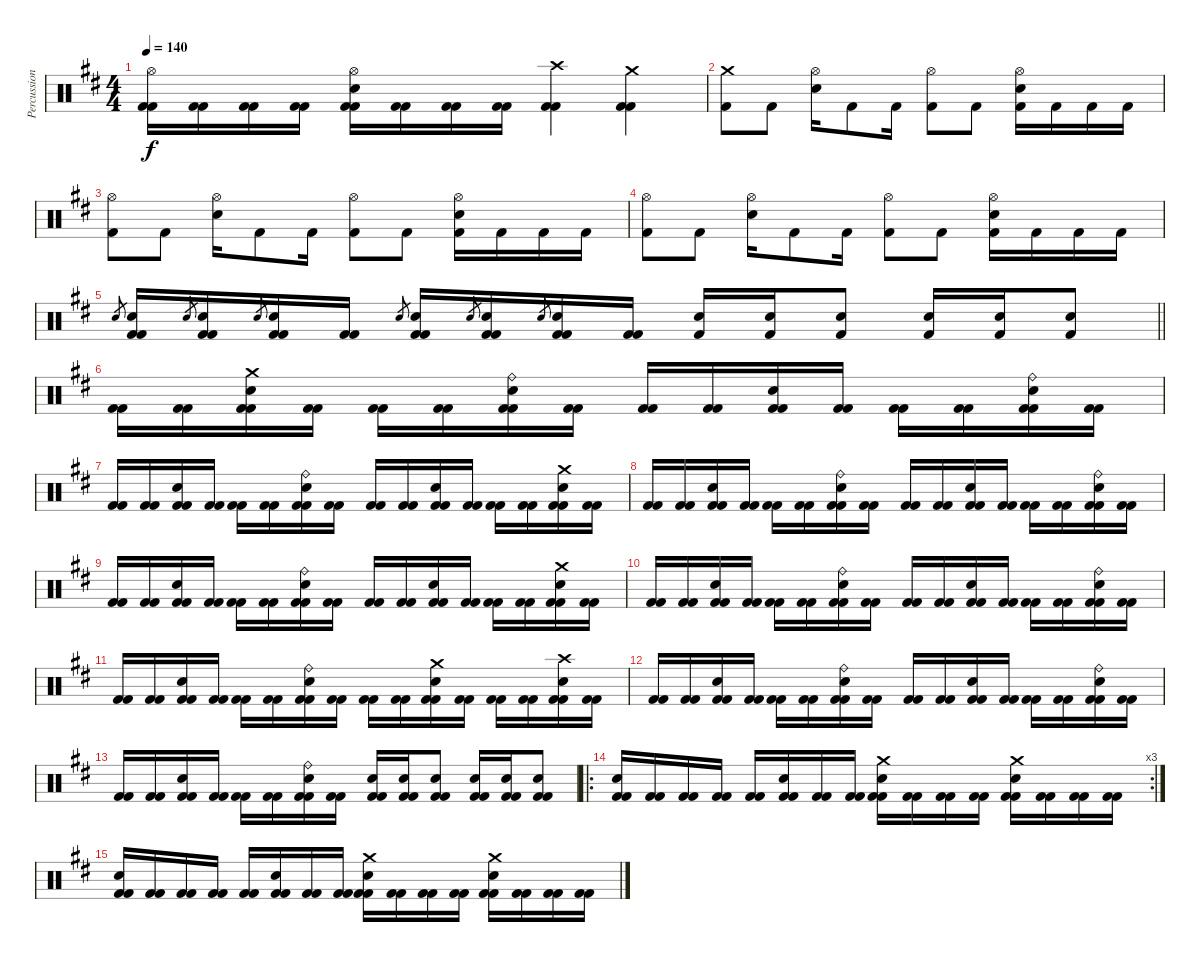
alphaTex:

\track ("Percussion" "Percussion") {instrument percussion}
\staff {score}
\articulation defaults
\ts (4 4)
\tempo 140
\clef neutral
\ks d
("Hi-Hat (open)" "Kick (hit) 2" "Kick (hit) 2").16{dy f} ("Kick (hit) 2" "Kick (hit) 2").16 ("Kick (hit) 2" "Kick (hit) 2").16 ("Kick (hit) 2" "Kick (hit) 2").16 ("Hi-Hat (open)" "Electric Snare (hit)" "Kick (hit) 2" "Kick (hit) 2").16 ("Kick (hit) 2" "Kick (hit) 2").16 ("Kick (hit) 2" "Kick (hit) 2").16 ("Kick (hit) 2" "Kick (hit) 2").16 ("Crash high (hit)" "Kick (hit) 2" "Kick (hit) 2").4 ("Crash medium (hit)" "Kick (hit) 2" "Kick (hit) 2").4 |
("Crash medium (hit)" "Kick (hit) 2").8 "Kick (hit) 2".8 ("Hi-Hat (open)" "Electric Snare (hit)").16 "Kick (hit) 2".8 "Kick (hit) 2".16 ("Hi-Hat (open)" "Kick (hit) 2").8 "Kick (hit) 2".8 ("Hi-Hat (open)" "Electric Snare (hit)" "Kick (hit) 2").16 "Kick (hit) 2".16 "Kick (hit) 2".16 "Kick (hit) 2".16 |
("Hi-Hat (open)" "Kick (hit) 2").8 "Kick (hit) 2".8 ("Hi-Hat (open)" "Electric Snare (hit)").16 "Kick (hit) 2".8 "Kick (hit) 2".16 ("Hi-Hat (open)" "Kick (hit) 2").8 "Kick (hit) 2".8 ("Hi-Hat (open)" "Electric Snare (hit)" "Kick (hit) 2").16 "Kick (hit) 2".16 "Kick (hit) 2".16 "Kick (hit) 2".16 |
("Hi-Hat (open)" "Kick (hit) 2").8 "Kick (hit) 2".8 ("Hi-Hat (open)" "Electric Snare (hit)").16 "Kick (hit) 2".8 "Kick (hit) 2".16 ("Hi-Hat (open)" "Kick (hit) 2").8 "Kick (hit) 2".8 ("Hi-Hat (open)" "Electric Snare (hit)" "Kick (hit) 2").16 "Kick (hit) 2".16 "Kick (hit) 2".16 "Kick (hit) 2".16 |
\barLineRight lightlight "Electric Snare (hit)".8{gr}
("Electric Snare (hit)" "Kick (hit) 2" "Kick (hit) 2").16 "Electric Snare (hit)".8{gr} ("Electric Snare (hit)" "Kick (hit) 2" "Kick (hit) 2").16 "Snare (hit)".8{gr} ("Electric Snare (hit)" "Kick (hit) 2" "Kick (hit) 2").16 ("Kick (hit) 2" "Kick (hit) 2").16 "Electric Snare (hit)".8{gr} ("Electric Snare (hit)" "Kick (hit) 2" "Kick (hit) 2").16 "Electric Snare (hit)".8{gr} ("Electric Snare (hit)" "Kick (hit) 2" "Kick (hit) 2").16 "Electric Snare (hit)".8{gr} ("Electric Snare (hit)" "Kick (hit) 2" "Kick (hit) 2").16 ("Kick (hit) 2" "Kick (hit) 2").16 ("Electric Snare (hit)" "Kick (hit) 2").16 ("Electric Snare (hit)" "Kick (hit) 2").16 ("Electric Snare (hit)" "Kick (hit) 2").8 ("Electric Snare (hit)" "Kick (hit) 2").16 ("Electric Snare (hit)" "Kick (hit) 2").16 ("Electric Snare (hit)" "Kick (hit) 2").8 |
("Kick (hit) 2" "Kick (hit) 2").16 ("Kick (hit) 2" "Kick (hit) 2").16 ("Crash medium (hit)" "Electric Snare (hit)" "Kick (hit) 2" "Kick (hit) 2").16 ("Kick (hit) 2" "Kick (hit) 2").16 ("Kick (hit) 2" "Kick (hit) 2").16 ("Kick (hit) 2" "Kick (hit) 2").16 ("Ride (bell)" "Electric Snare (hit)" "Kick (hit) 2" "Kick (hit) 2").16 ("Kick (hit) 2" "Kick (hit) 2").16 ("Kick (hit) 2" "Kick (hit) 2").16 ("Kick (hit) 2" "Kick (hit) 2").16 ("Electric Snare (hit)" "Kick (hit) 2" "Kick (hit) 2").16 ("Kick (hit) 2" "Kick (hit) 2").16 ("Kick (hit) 2" "Kick (hit) 2").16 ("Kick (hit) 2" "Kick (hit) 2").16 ("Ride (bell)" "Electric Snare (hit)" "Kick (hit) 2" "Kick (hit) 2").16 ("Kick (hit) 2" "Kick (hit) 2").16 |
("Kick (hit) 2" "Kick (hit) 2").16 ("Kick (hit) 2" "Kick (hit) 2").16 ("Electric Snare (hit)" "Kick (hit) 2" "Kick (hit) 2").16 ("Kick (hit) 2" "Kick (hit) 2").16 ("Kick (hit) 2" "Kick (hit) 2").16 ("Kick (hit) 2" "Kick (hit) 2").16 ("Ride (bell)" "Electric Snare (hit)" "Kick (hit) 2" "Kick (hit) 2").16 ("Kick (hit) 2" "Kick (hit) 2").16 ("Kick (hit) 2" "Kick (hit) 2").16 ("Kick (hit) 2" "Kick (hit) 2").16 ("Electric Snare (hit)" "Kick (hit) 2" "Kick (hit) 2").16 ("Kick (hit) 2" "Kick (hit) 2").16 ("Kick (hit) 2" "Kick (hit) 2").16 ("Kick (hit) 2" "Kick (hit) 2").16 ("Crash medium (hit)" "Electric Snare (hit)" "Kick (hit) 2" "Kick (hit) 2").16 ("Kick (hit) 2" "Kick (hit) 2").16 |
("Kick (hit) 2" "Kick (hit) 2").16 ("Kick (hit) 2" "Kick (hit) 2").16 ("Electric Snare (hit)" "Kick (hit) 2" "Kick (hit) 2").16 ("Kick (hit) 2" "Kick (hit) 2").16 ("Kick (hit) 2" "Kick (hit) 2").16 ("Kick (hit) 2" "Kick (hit) 2").16 ("Ride (bell)" "Electric Snare (hit)" "Kick (hit) 2" "Kick (hit) 2").16 ("Kick (hit) 2" "Kick (hit) 2").16 ("Kick (hit) 2" "Kick (hit) 2").16 ("Kick (hit) 2" "Kick (hit) 2").16 ("Electric Snare (hit)" "Kick (hit) 2" "Kick (hit) 2").16 ("Kick (hit) 2" "Kick (hit) 2").16 ("Kick (hit) 2" "Kick (hit) 2").16 ("Kick (hit) 2" "Kick (hit) 2").16 ("Ride (bell)" "Electric Snare (hit)" "Kick (hit) 2" "Kick (hit) 2").16 ("Kick (hit) 2" "Kick (hit) 2").16 |
("Kick (hit) 2" "Kick (hit) 2").16 ("Kick (hit) 2" "Kick (hit) 2").16 ("Electric Snare (hit)" "Kick (hit) 2" "Kick (hit) 2").16 ("Kick (hit) 2" "Kick (hit) 2").16 ("Kick (hit) 2" "Kick (hit) 2").16 ("Kick (hit) 2" "Kick (hit) 2").16 ("Ride (bell)" "Electric Snare (hit)" "Kick (hit) 2" "Kick (hit) 2").16 ("Kick (hit) 2" "Kick (hit) 2").16 ("Kick (hit) 2" "Kick (hit) 2").16 ("Kick (hit) 2" "Kick (hit) 2").16 ("Electric Snare (hit)" "Kick (hit) 2" "Kick (hit) 2").16 ("Kick (hit) 2" "Kick (hit) 2").16 ("Kick (hit) 2" "Kick (hit) 2").16 ("Kick (hit) 2" "Kick (hit) 2").16 ("Crash medium (hit)" "Electric Snare (hit)" "Kick (hit) 2" "Kick (hit) 2").16 ("Kick (hit) 2" "Kick (hit) 2").16 |
("Kick (hit) 2" "Kick (hit) 2").16 ("Kick (hit) 2" "Kick (hit) 2").16 ("Electric Snare (hit)" "Kick (hit) 2" "Kick (hit) 2").16 ("Kick (hit) 2" "Kick (hit) 2").16 ("Kick (hit) 2" "Kick (hit) 2").16 ("Kick (hit) 2" "Kick (hit) 2").16 ("Ride (bell)" "Electric Snare (hit)" "Kick (hit) 2" "Kick (hit) 2").16 ("Kick (hit) 2" "Kick (hit) 2").16 ("Kick (hit) 2" "Kick (hit) 2").16 ("Kick (hit) 2" "Kick (hit) 2").16 ("Electric Snare (hit)" "Kick (hit) 2" "Kick (hit) 2").16 ("Kick (hit) 2" "Kick (hit) 2").16 ("Kick (hit) 2" "Kick (hit) 2").16 ("Kick (hit) 2" "Kick (hit) 2").16 ("Ride (bell)" "Electric Snare (hit)" "Kick (hit) 2" "Kick (hit) 2").16 ("Kick (hit) 2" "Kick (hit) 2").16 |
("Kick (hit) 2" "Kick (hit) 2").16 ("Kick (hit) 2" "Kick (hit) 2").16 ("Electric Snare (hit)" "Kick (hit) 2" "Kick (hit) 2").16 ("Kick (hit) 2" "Kick (hit) 2").16 ("Kick (hit) 2" "Kick (hit) 2").16 ("Kick (hit) 2" "Kick (hit) 2").16 ("Ride (bell)" "Electric Snare (hit)" "Kick (hit) 2" "Kick (hit) 2").16 ("Kick (hit) 2" "Kick (hit) 2").16 ("Kick (hit) 2" "Kick (hit) 2").16 ("Kick (hit) 2" "Kick (hit) 2").16 ("Crash medium (hit)" "Electric Snare (hit)" "Kick (hit) 2" "Kick (hit) 2").16 ("Kick (hit) 2" "Kick (hit) 2").16 ("Kick (hit) 2" "Kick (hit) 2").16 ("Kick (hit) 2" "Kick (hit) 2").16 ("Crash high (hit)" "Electric Snare (hit)" "Kick (hit) 2" "Kick (hit) 2").16 ("Kick (hit) 2" "Kick (hit) 2").16 |
("Kick (hit) 2" "Kick (hit) 2").16 ("Kick (hit) 2" "Kick (hit) 2").16 ("Electric Snare (hit)" "Kick (hit) 2" "Kick (hit) 2").16 ("Kick (hit) 2" "Kick (hit) 2").16 ("Kick (hit) 2" "Kick (hit) 2").16 ("Kick (hit) 2" "Kick (hit) 2").16 ("Ride (bell)" "Electric Snare (hit)" "Kick (hit) 2" "Kick (hit) 2").16 ("Kick (hit) 2" "Kick (hit) 2").16 ("Kick (hit) 2" "Kick (hit) 2").16 ("Kick (hit) 2" "Kick (hit) 2").16 ("Electric Snare (hit)" "Kick (hit) 2" "Kick (hit) 2").16 ("Kick (hit) 2" "Kick (hit) 2").16 ("Kick (hit) 2" "Kick (hit) 2").16 ("Kick (hit) 2" "Kick (hit) 2").16 ("Ride (bell)" "Electric Snare (hit)" "Kick (hit) 2" "Kick (hit) 2").16 ("Kick (hit) 2" "Kick (hit) 2").16 |
("Kick (hit) 2" "Kick (hit) 2").16 ("Kick (hit) 2" "Kick (hit) 2").16 ("Electric Snare (hit)" "Kick (hit) 2" "Kick (hit) 2").16 ("Kick (hit) 2" "Kick (hit) 2").16 ("Kick (hit) 2" "Kick (hit) 2").16 ("Kick (hit) 2" "Kick (hit) 2").16 ("Ride (bell)" "Electric Snare (hit)" "Kick (hit) 2" "Kick (hit) 2").16 ("Kick (hit) 2" "Kick (hit) 2").16 ("Electric Snare (hit)" "Kick (hit) 2" "Kick (hit) 2").16 ("Electric Snare (hit)" "Kick (hit) 2" "Kick (hit) 2").16 ("Electric Snare (hit)" "Kick (hit) 2" "Kick (hit) 2").8 ("Electric Snare (hit)" "Kick (hit) 2" "Kick (hit) 2").16 ("Electric Snare (hit)" "Kick (hit) 2" "Kick (hit) 2").16 ("Electric Snare (hit)" "Kick (hit) 2" "Kick (hit) 2").8 |
\ro
\rc 3
("Electric Snare (hit)" "Kick (hit) 2" "Kick (hit) 2").16 ("Kick (hit) 2" "Kick (hit) 2").16 ("Kick (hit) 2" "Kick (hit) 2").16 ("Kick (hit) 2" "Kick (hit) 2").16 ("Kick (hit) 2" "Kick (hit) 2").16 ("Electric Snare (hit)" "Kick (hit) 2" "Kick (hit) 2").16 ("Kick (hit) 2" "Kick (hit) 2").16 ("Kick (hit) 2" "Kick (hit) 2").16 ("Crash medium (hit)" "Electric Snare (hit)" "Kick (hit) 2" "Kick (hit) 2").16 ("Kick (hit) 2" "Kick (hit) 2").16 ("Kick (hit) 2" "Kick (hit) 2").16 ("Kick (hit) 2" "Kick (hit) 2").16 ("Crash medium (hit)" "Electric Snare (hit)" "Kick (hit) 2" "Kick (hit) 2").16 ("Kick (hit) 2" "Kick (hit) 2").16 ("Kick (hit) 2" "Kick (hit) 2").16 ("Kick (hit) 2" "Kick (hit) 2").16 |
("Electric Snare (hit)" "Kick (hit) 2" "Kick (hit) 2").16 ("Kick (hit) 2" "Kick (hit) 2").16 ("Kick (hit) 2" "Kick (hit) 2").16 ("Kick (hit) 2" "Kick (hit) 2").16 ("Kick (hit) 2" "Kick (hit) 2").16 ("Electric Snare (hit)" "Kick (hit) 2" "Kick (hit) 2").16 ("Kick (hit) 2" "Kick (hit) 2").16 ("Kick (hit) 2" "Kick (hit) 2").16 ("Crash medium (hit)" "Electric Snare (hit)" "Kick (hit) 2" "Kick (hit) 2").16 ("Kick (hit) 2" "Kick (hit) 2").16 ("Kick (hit) 2" "Kick (hit) 2").16 ("Kick (hit) 2" "Kick (hit) 2").16 ("Crash medium (hit)" "Electric Snare (hit)" "Kick (hit) 2" "Kick (hit) 2").16 ("Kick (hit) 2" "Kick (hit) 2").16 ("Kick (hit) 2" "Kick (hit) 2").16 ("Kick (hit) 2" "Kick (hit) 2").16
